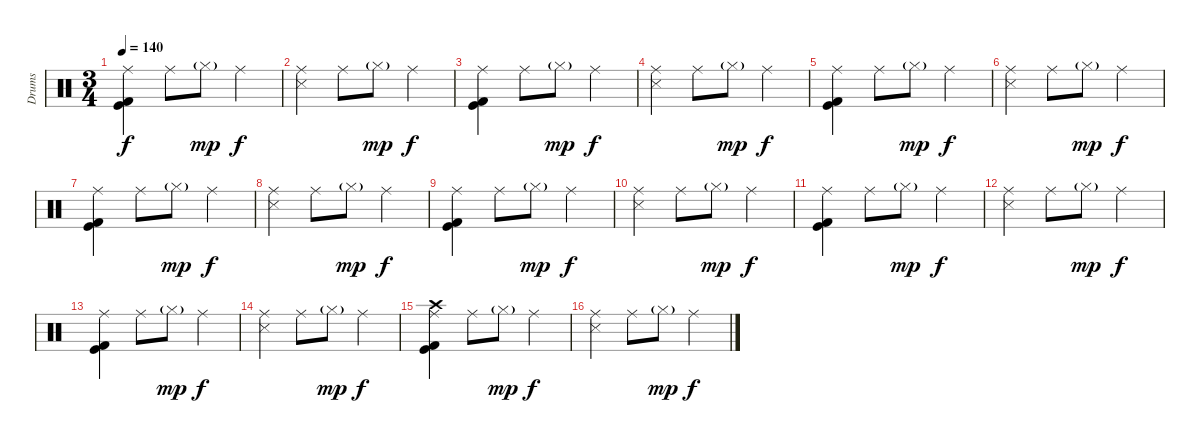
\track ("Drums" "Drums") {instrument percussion}
\staff {score}
\articulation defaults
\ts (3 4)
\tempo 140
\clef neutral
\ks c
("Ride (middle)" "Kick (hit) 2" "Kick (hit)").4{dy f} "Ride (middle)".8 "Hi-Hat (closed)"{g}.8{dy mp} "Ride (middle)".4{dy f} |
("Ride (middle)" "Snare (side stick) 3").4 "Ride (middle)".8 "Hi-Hat (closed)"{g}.8{dy mp} "Ride (middle)".4{dy f} |
("Ride (middle)" "Kick (hit) 2" "Kick (hit)").4 "Ride (middle)".8 "Hi-Hat (closed)"{g}.8{dy mp} "Ride (middle)".4{dy f} |
("Ride (middle)" "Snare (side stick) 3").4 "Ride (middle)".8 "Hi-Hat (closed)"{g}.8{dy mp} "Ride (middle)".4{dy f} |
("Ride (middle)" "Kick (hit) 2" "Kick (hit)").4 "Ride (middle)".8 "Hi-Hat (closed)"{g}.8{dy mp} "Ride (middle)".4{dy f} |
("Ride (middle)" "Snare (side stick) 3").4 "Ride (middle)".8 "Hi-Hat (closed)"{g}.8{dy mp} "Ride (middle)".4{dy f} |
("Ride (middle)" "Kick (hit) 2" "Kick (hit)").4 "Ride (middle)".8 "Hi-Hat (closed)"{g}.8{dy mp} "Ride (middle)".4{dy f} |
("Ride (middle)" "Snare (side stick) 3").4 "Ride (middle)".8 "Hi-Hat (closed)"{g}.8{dy mp} "Ride (middle)".4{dy f} |
("Ride (middle)" "Kick (hit) 2" "Kick (hit)").4 "Ride (middle)".8 "Hi-Hat (closed)"{g}.8{dy mp} "Ride (middle)".4{dy f} |
("Ride (middle)" "Snare (side stick) 3").4 "Ride (middle)".8 "Hi-Hat (closed)"{g}.8{dy mp} "Ride (middle)".4{dy f} |
("Ride (middle)" "Kick (hit) 2" "Kick (hit)").4 "Ride (middle)".8 "Hi-Hat (closed)"{g}.8{dy mp} "Ride (middle)".4{dy f} |
("Ride (middle)" "Snare (side stick) 3").4 "Ride (middle)".8 "Hi-Hat (closed)"{g}.8{dy mp} "Ride (middle)".4{dy f} |
("Ride (middle)" "Kick (hit) 2" "Kick (hit)").4 "Ride (middle)".8 "Hi-Hat (closed)"{g}.8{dy mp} "Ride (middle)".4{dy f} |
("Ride (middle)" "Snare (side stick) 3").4 "Ride (middle)".8 "Hi-Hat (closed)"{g}.8{dy mp} "Ride (middle)".4{dy f} |
("Crash high (hit)" "Ride (middle)" "Kick (hit) 2" "Kick (hit)").4 "Ride (middle)".8 "Hi-Hat (closed)"{g}.8{dy mp} "Ride (middle)".4{dy f} |
("Ride (middle)" "Snare (side stick) 3").4 "Ride (middle)".8 "Hi-Hat (closed)"{g}.8{dy mp} "Ride (middle)".4{dy f}
